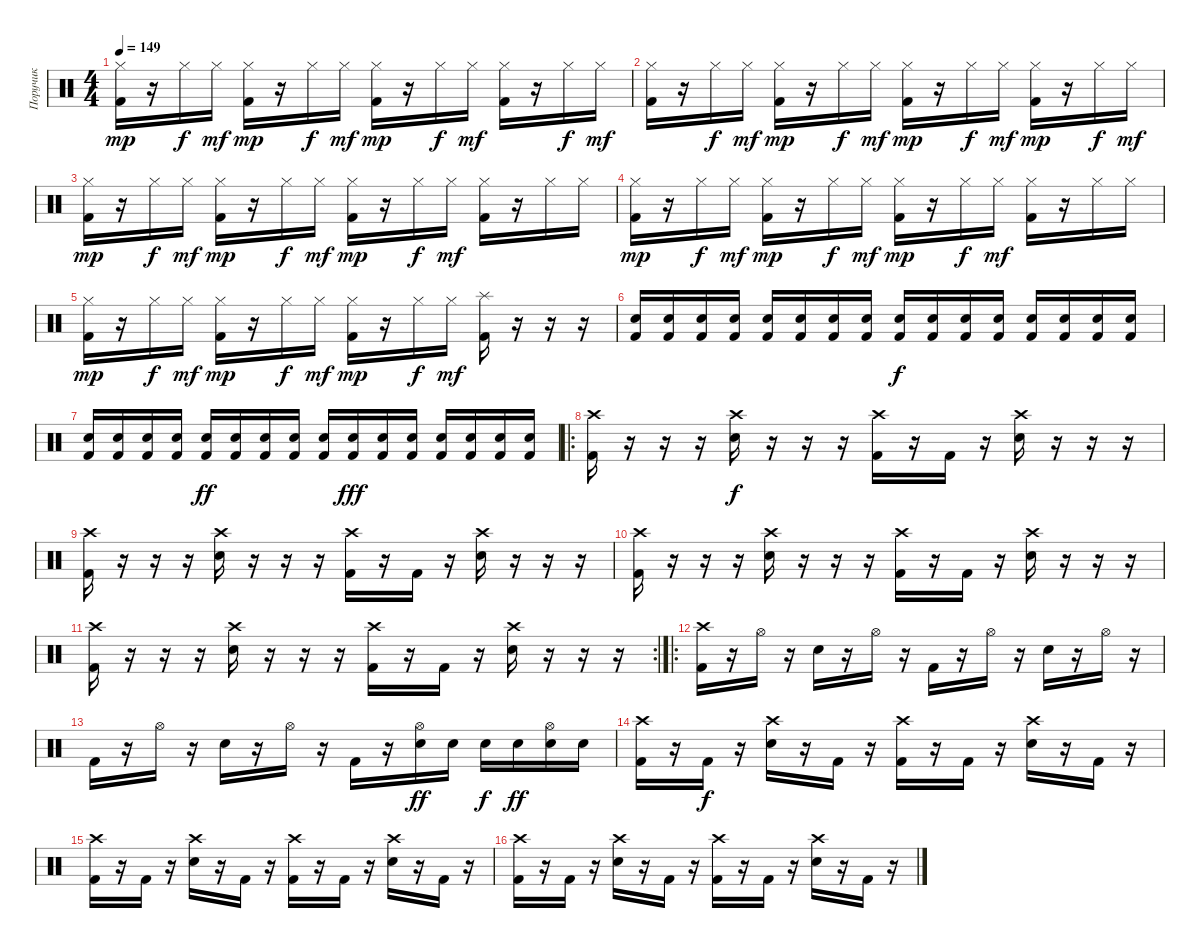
\track ("Поручик" "Поручик") {instrument percussion}
\staff {score}
\articulation defaults
\ts (4 4)
\tempo 149
\clef neutral
\ks c
("Hi-Hat (closed)" "Kick (hit) 2").16{dy mp} r.16 "Hi-Hat (closed)".16{dy f} "Hi-Hat (closed)".16{dy mf} ("Hi-Hat (closed)" "Kick (hit) 2").16{dy mp} r.16 "Hi-Hat (closed)".16{dy f} "Hi-Hat (closed)".16{dy mf} ("Hi-Hat (closed)" "Kick (hit) 2").16{dy mp} r.16 "Hi-Hat (closed)".16{dy f} "Hi-Hat (closed)".16{dy mf} ("Hi-Hat (closed)" "Kick (hit) 2").16 r.16 "Hi-Hat (closed)".16{dy f} "Hi-Hat (closed)".16{dy mf} |
("Hi-Hat (closed)" "Kick (hit) 2").16 r.16 "Hi-Hat (closed)".16{dy f} "Hi-Hat (closed)".16{dy mf} ("Hi-Hat (closed)" "Kick (hit) 2").16{dy mp} r.16 "Hi-Hat (closed)".16{dy f} "Hi-Hat (closed)".16{dy mf} ("Hi-Hat (closed)" "Kick (hit) 2").16{dy mp} r.16 "Hi-Hat (closed)".16{dy f} "Hi-Hat (closed)".16{dy mf} ("Hi-Hat (closed)" "Kick (hit) 2").16{dy mp} r.16 "Hi-Hat (closed)".16{dy f} "Hi-Hat (closed)".16{dy mf} |
("Hi-Hat (closed)" "Kick (hit) 2").16{dy mp} r.16 "Hi-Hat (closed)".16{dy f} "Hi-Hat (closed)".16{dy mf} ("Hi-Hat (closed)" "Kick (hit) 2").16{dy mp} r.16 "Hi-Hat (closed)".16{dy f} "Hi-Hat (closed)".16{dy mf} ("Hi-Hat (closed)" "Kick (hit) 2").16{dy mp} r.16 "Hi-Hat (closed)".16{dy f} "Hi-Hat (closed)".16{dy mf} ("Hi-Hat (closed)" "Kick (hit) 2").16 r.16 "Hi-Hat (closed)".16 "Hi-Hat (closed)".16 |
("Hi-Hat (closed)" "Kick (hit) 2").16{dy mp} r.16 "Hi-Hat (closed)".16{dy f} "Hi-Hat (closed)".16{dy mf} ("Hi-Hat (closed)" "Kick (hit) 2").16{dy mp} r.16 "Hi-Hat (closed)".16{dy f} "Hi-Hat (closed)".16{dy mf} ("Hi-Hat (closed)" "Kick (hit) 2").16{dy mp} r.16 "Hi-Hat (closed)".16{dy f} "Hi-Hat (closed)".16{dy mf} ("Hi-Hat (closed)" "Kick (hit) 2").16 r.16 "Hi-Hat (closed)".16 "Hi-Hat (closed)".16 |
("Hi-Hat (closed)" "Kick (hit) 2").16{dy mp} r.16 "Hi-Hat (closed)".16{dy f} "Hi-Hat (closed)".16{dy mf} ("Hi-Hat (closed)" "Kick (hit) 2").16{dy mp} r.16 "Hi-Hat (closed)".16{dy f} "Hi-Hat (closed)".16{dy mf} ("Hi-Hat (closed)" "Kick (hit) 2").16{dy mp} r.16 "Hi-Hat (closed)".16{dy f} "Hi-Hat (closed)".16{dy mf} ("Splash (hit)" "Kick (hit) 2").16 r.16 r.16 r.16 |
("Snare (hit) 2" "Kick (hit) 2").16 ("Snare (hit) 2" "Kick (hit) 2").16 ("Snare (hit) 2" "Kick (hit) 2").16 ("Snare (hit) 2" "Kick (hit) 2").16 ("Snare (hit) 2" "Kick (hit) 2").16 ("Snare (hit) 2" "Kick (hit) 2").16 ("Snare (hit) 2" "Kick (hit) 2").16 ("Snare (hit) 2" "Kick (hit) 2").16 ("Snare (hit) 2" "Kick (hit) 2").16{dy f} ("Snare (hit) 2" "Kick (hit) 2").16 ("Snare (hit) 2" "Kick (hit) 2").16 ("Snare (hit) 2" "Kick (hit) 2").16 ("Snare (hit) 2" "Kick (hit) 2").16 ("Snare (hit) 2" "Kick (hit) 2").16 ("Snare (hit) 2" "Kick (hit) 2").16 ("Snare (hit) 2" "Kick (hit) 2").16 |
("Snare (hit) 2" "Kick (hit) 2").16 ("Snare (hit) 2" "Kick (hit) 2").16 ("Snare (hit) 2" "Kick (hit) 2").16 ("Snare (hit) 2" "Kick (hit) 2").16 ("Snare (hit) 2" "Kick (hit) 2").16{dy ff} ("Snare (hit) 2" "Kick (hit) 2").16 ("Snare (hit) 2" "Kick (hit) 2").16 ("Snare (hit) 2" "Kick (hit) 2").16 ("Snare (hit) 2" "Kick (hit) 2").16 ("Snare (hit) 2" "Kick (hit) 2").16{dy fff} ("Snare (hit) 2" "Kick (hit) 2").16 ("Snare (hit) 2" "Kick (hit) 2").16 ("Snare (hit) 2" "Kick (hit) 2").16 ("Snare (hit) 2" "Kick (hit) 2").16 ("Snare (hit) 2" "Kick (hit) 2").16 ("Snare (hit) 2" "Kick (hit) 2").16 |
\ro
("Crash high (hit)" "Kick (hit) 2").16 r.16 r.16 r.16 ("Crash high (hit)" "Snare (hit) 2").16{dy f} r.16 r.16 r.16 ("Crash high (hit)" "Kick (hit) 2").16 r.16 "Kick (hit) 2".16 r.16 ("Crash high (hit)" "Snare (hit) 2").16 r.16 r.16 r.16 |
("Crash high (hit)" "Kick (hit) 2").16 r.16 r.16 r.16 ("Crash high (hit)" "Snare (hit) 2").16 r.16 r.16 r.16 ("Crash high (hit)" "Kick (hit) 2").16 r.16 "Kick (hit) 2".16 r.16 ("Crash high (hit)" "Snare (hit) 2").16 r.16 r.16 r.16 |
("Crash high (hit)" "Kick (hit) 2").16 r.16 r.16 r.16 ("Crash high (hit)" "Snare (hit) 2").16 r.16 r.16 r.16 ("Crash high (hit)" "Kick (hit) 2").16 r.16 "Kick (hit) 2".16 r.16 ("Crash high (hit)" "Snare (hit) 2").16 r.16 r.16 r.16 |
\rc 2
("Crash high (hit)" "Kick (hit) 2").16 r.16 r.16 r.16 ("Crash high (hit)" "Snare (hit) 2").16 r.16 r.16 r.16 ("Crash high (hit)" "Kick (hit) 2").16 r.16 "Kick (hit) 2".16 r.16 ("Crash high (hit)" "Snare (hit) 2").16 r.16 r.16 r.16 |
\ro
("Crash high (hit)" "Kick (hit) 2").16 r.16 "Hi-Hat (open)".16 r.16 "Snare (hit) 2".16 r.16 "Hi-Hat (open)".16 r.16 "Kick (hit) 2".16 r.16 "Hi-Hat (open)".16 r.16 "Snare (hit) 2".16 r.16 "Hi-Hat (open)".16 r.16 |
"Kick (hit) 2".16 r.16 "Hi-Hat (open)".16 r.16 "Snare (hit) 2".16 r.16 "Hi-Hat (open)".16 r.16 "Kick (hit) 2".16 r.16 ("Hi-Hat (open)" "Snare (hit) 2").16{dy ff} "Snare (hit) 2".16 "Snare (hit) 2".16{dy f} "Snare (hit) 2".16{dy ff} ("Hi-Hat (open)" "Snare (hit) 2").16 "Snare (hit) 2".16 |
("Crash high (hit)" "Kick (hit) 2").16 r.16 "Kick (hit) 2".16{dy f} r.16 ("Crash high (hit)" "Snare (hit) 2").16 r.16 "Kick (hit) 2".16 r.16 ("Crash high (hit)" "Kick (hit) 2").16 r.16 "Kick (hit) 2".16 r.16 ("Crash high (hit)" "Snare (hit) 2").16 r.16 "Kick (hit) 2".16 r.16 |
("Crash high (hit)" "Kick (hit) 2").16 r.16 "Kick (hit) 2".16 r.16 ("Crash high (hit)" "Snare (hit) 2").16 r.16 "Kick (hit) 2".16 r.16 ("Crash high (hit)" "Kick (hit) 2").16 r.16 "Kick (hit) 2".16 r.16 ("Crash high (hit)" "Snare (hit) 2").16 r.16 "Kick (hit) 2".16 r.16 |
("Crash high (hit)" "Kick (hit) 2").16 r.16 "Kick (hit) 2".16 r.16 ("Crash high (hit)" "Snare (hit) 2").16 r.16 "Kick (hit) 2".16 r.16 ("Crash high (hit)" "Kick (hit) 2").16 r.16 "Kick (hit) 2".16 r.16 ("Crash high (hit)" "Snare (hit) 2").16 r.16 "Kick (hit) 2".16 r.16
